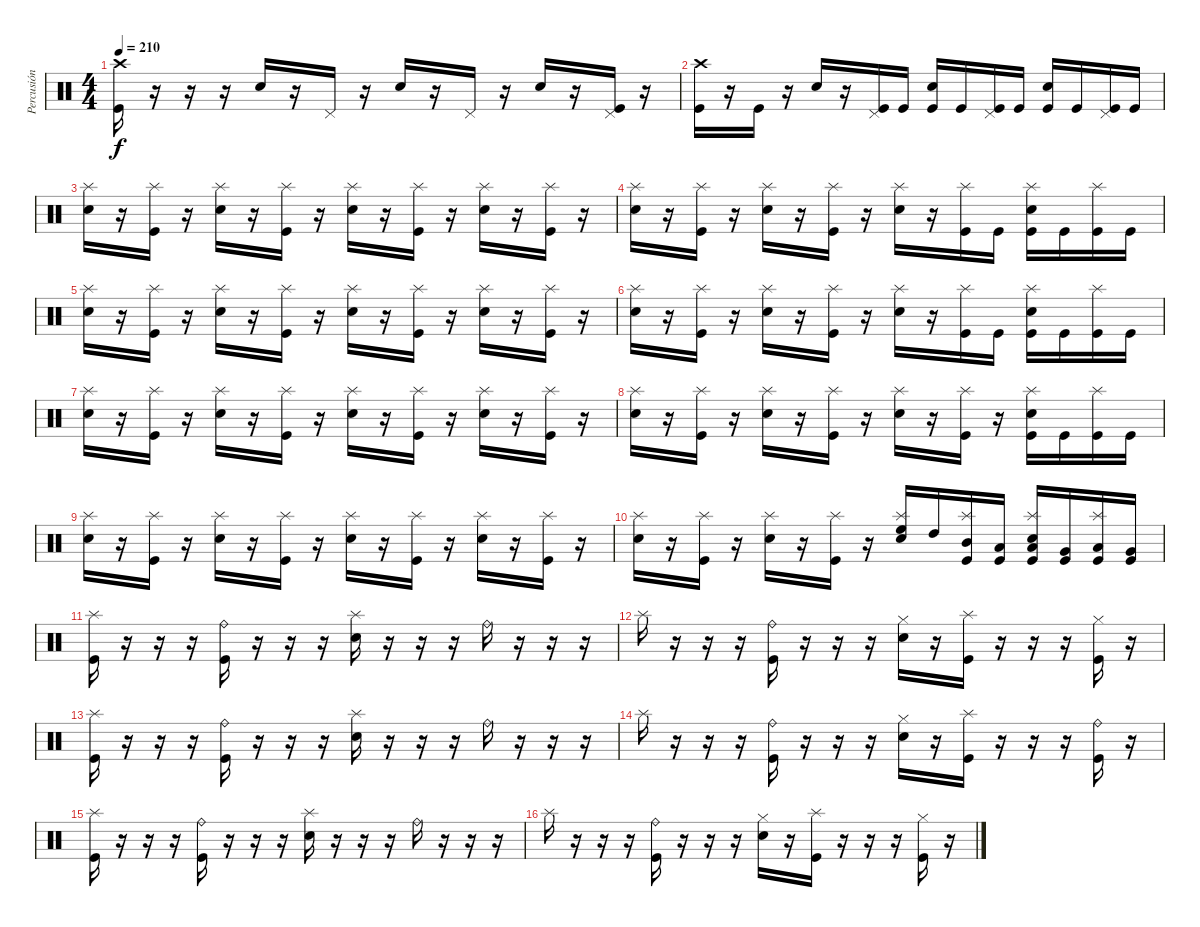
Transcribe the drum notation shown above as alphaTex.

\track ("Percusión" "Percusión") {instrument percussion}
\staff {score}
\articulation defaults
\ts (4 4)
\tempo 210
\clef neutral
\ks c
("Crash high (hit)" "Kick (hit)").16{dy f} r.16 r.16 r.16 "Snare (hit) 2".16 r.16 "Pedal Hi-Hat (hit)".16 r.16 "Snare (hit) 2".16 r.16 "Pedal Hi-Hat (hit)".16 r.16 "Snare (hit) 2".16 r.16 ("Pedal Hi-Hat (hit)" "Kick (hit)").16 r.16 |
("Crash high (hit)" "Kick (hit)").16 r.16 "Kick (hit)".16 r.16 "Snare (hit) 2".16 r.16 ("Pedal Hi-Hat (hit)" "Kick (hit)").16 "Kick (hit)".16 ("Snare (hit) 2" "Kick (hit)").16 "Kick (hit)".16 ("Pedal Hi-Hat (hit)" "Kick (hit)").16 "Kick (hit)".16 ("Snare (hit) 2" "Kick (hit)").16 "Kick (hit)".16 ("Pedal Hi-Hat (hit)" "Kick (hit)").16 "Kick (hit)".16 |
("Splash (hit)" "Snare (hit) 2").16 r.16 ("Splash (hit)" "Kick (hit)").16 r.16 ("Splash (hit)" "Snare (hit) 2").16 r.16 ("Splash (hit)" "Kick (hit)").16 r.16 ("Splash (hit)" "Snare (hit) 2").16 r.16 ("Splash (hit)" "Kick (hit)").16 r.16 ("Splash (hit)" "Snare (hit) 2").16 r.16 ("Splash (hit)" "Kick (hit)").16 r.16 |
("Splash (hit)" "Snare (hit) 2").16 r.16 ("Splash (hit)" "Kick (hit)").16 r.16 ("Splash (hit)" "Snare (hit) 2").16 r.16 ("Splash (hit)" "Kick (hit)").16 r.16 ("Splash (hit)" "Snare (hit) 2").16 r.16 ("Splash (hit)" "Kick (hit)").16 "Kick (hit)".16 ("Splash (hit)" "Snare (hit) 2" "Kick (hit)").16 "Kick (hit)".16 ("Splash (hit)" "Kick (hit)").16 "Kick (hit)".16 |
("Splash (hit)" "Snare (hit) 2").16 r.16 ("Splash (hit)" "Kick (hit)").16 r.16 ("Splash (hit)" "Snare (hit) 2").16 r.16 ("Splash (hit)" "Kick (hit)").16 r.16 ("Splash (hit)" "Snare (hit) 2").16 r.16 ("Splash (hit)" "Kick (hit)").16 r.16 ("Splash (hit)" "Snare (hit) 2").16 r.16 ("Splash (hit)" "Kick (hit)").16 r.16 |
("Splash (hit)" "Snare (hit) 2").16 r.16 ("Splash (hit)" "Kick (hit)").16 r.16 ("Splash (hit)" "Snare (hit) 2").16 r.16 ("Splash (hit)" "Kick (hit)").16 r.16 ("Splash (hit)" "Snare (hit) 2").16 r.16 ("Splash (hit)" "Kick (hit)").16 "Kick (hit)".16 ("Splash (hit)" "Snare (hit) 2" "Kick (hit)").16 "Kick (hit)".16 ("Splash (hit)" "Kick (hit)").16 "Kick (hit)".16 |
("Splash (hit)" "Snare (hit) 2").16 r.16 ("Splash (hit)" "Kick (hit)").16 r.16 ("Splash (hit)" "Snare (hit) 2").16 r.16 ("Splash (hit)" "Kick (hit)").16 r.16 ("Splash (hit)" "Snare (hit) 2").16 r.16 ("Splash (hit)" "Kick (hit)").16 r.16 ("Splash (hit)" "Snare (hit) 2").16 r.16 ("Splash (hit)" "Kick (hit)").16 r.16 |
("Splash (hit)" "Snare (hit) 2").16 r.16 ("Splash (hit)" "Kick (hit)").16 r.16 ("Splash (hit)" "Snare (hit) 2").16 r.16 ("Splash (hit)" "Kick (hit)").16 r.16 ("Splash (hit)" "Snare (hit) 2").16 r.16 ("Splash (hit)" "Kick (hit)").16 r.16 ("Splash (hit)" "Snare (hit) 2" "Kick (hit)").16 "Kick (hit)".16 ("Splash (hit)" "Kick (hit)").16 "Kick (hit)".16 |
("Splash (hit)" "Snare (hit) 2").16 r.16 ("Splash (hit)" "Kick (hit)").16 r.16 ("Splash (hit)" "Snare (hit) 2").16 r.16 ("Splash (hit)" "Kick (hit)").16 r.16 ("Splash (hit)" "Snare (hit) 2").16 r.16 ("Splash (hit)" "Kick (hit)").16 r.16 ("Splash (hit)" "Snare (hit) 2").16 r.16 ("Splash (hit)" "Kick (hit)").16 r.16 |
("Splash (hit)" "Snare (hit) 2").16 r.16 ("Splash (hit)" "Kick (hit)").16 r.16 ("Splash (hit)" "Snare (hit) 2").16 r.16 ("Splash (hit)" "Kick (hit)").16 r.16 ("Splash (hit)" "High Floor Tom (hit)" "Snare (hit) 2").16 "High Tom (hit)".16 ("Splash (hit)" "Mid Tom (hit)" "Kick (hit)").16 ("Low Tom (hit)" "Kick (hit)").16 ("Splash (hit)" "Low Tom (hit)" "Snare (hit) 2" "Kick (hit)").16 ("Very Low Tom (hit)" "Kick (hit)").16 ("Splash (hit)" "Low Floor Tom (hit)" "Kick (hit)").16 ("Very Low Tom (hit)" "Kick (hit)").16 |
("Splash (hit)" "Kick (hit)").16 r.16 r.16 r.16 ("Ride (bell)" "Kick (hit)").16 r.16 r.16 r.16 ("Splash (hit)" "Snare (hit) 2").16 r.16 r.16 r.16 "Ride (bell)".16 r.16 r.16 r.16 |
"Splash (hit)".16 r.16 r.16 r.16 ("Ride (bell)" "Kick (hit)").16 r.16 r.16 r.16 ("Hi-Hat (closed)" "Snare (hit) 2").16 r.16 ("Splash (hit)" "Kick (hit)").16 r.16 r.16 r.16 ("Hi-Hat (closed)" "Kick (hit)").16 r.16 |
("Splash (hit)" "Kick (hit)").16 r.16 r.16 r.16 ("Ride (bell)" "Kick (hit)").16 r.16 r.16 r.16 ("Splash (hit)" "Snare (hit) 2").16 r.16 r.16 r.16 "Ride (bell)".16 r.16 r.16 r.16 |
"Splash (hit)".16 r.16 r.16 r.16 ("Ride (bell)" "Kick (hit)").16 r.16 r.16 r.16 ("Hi-Hat (closed)" "Snare (hit) 2").16 r.16 ("Splash (hit)" "Kick (hit)").16 r.16 r.16 r.16 ("Ride (bell)" "Kick (hit)").16 r.16 |
("Splash (hit)" "Kick (hit)").16 r.16 r.16 r.16 ("Ride (bell)" "Kick (hit)").16 r.16 r.16 r.16 ("Splash (hit)" "Snare (hit) 2").16 r.16 r.16 r.16 "Ride (bell)".16 r.16 r.16 r.16 |
"Splash (hit)".16 r.16 r.16 r.16 ("Ride (bell)" "Kick (hit)").16 r.16 r.16 r.16 ("Hi-Hat (closed)" "Snare (hit) 2").16 r.16 ("Splash (hit)" "Kick (hit)").16 r.16 r.16 r.16 ("Hi-Hat (closed)" "Kick (hit)").16 r.16
